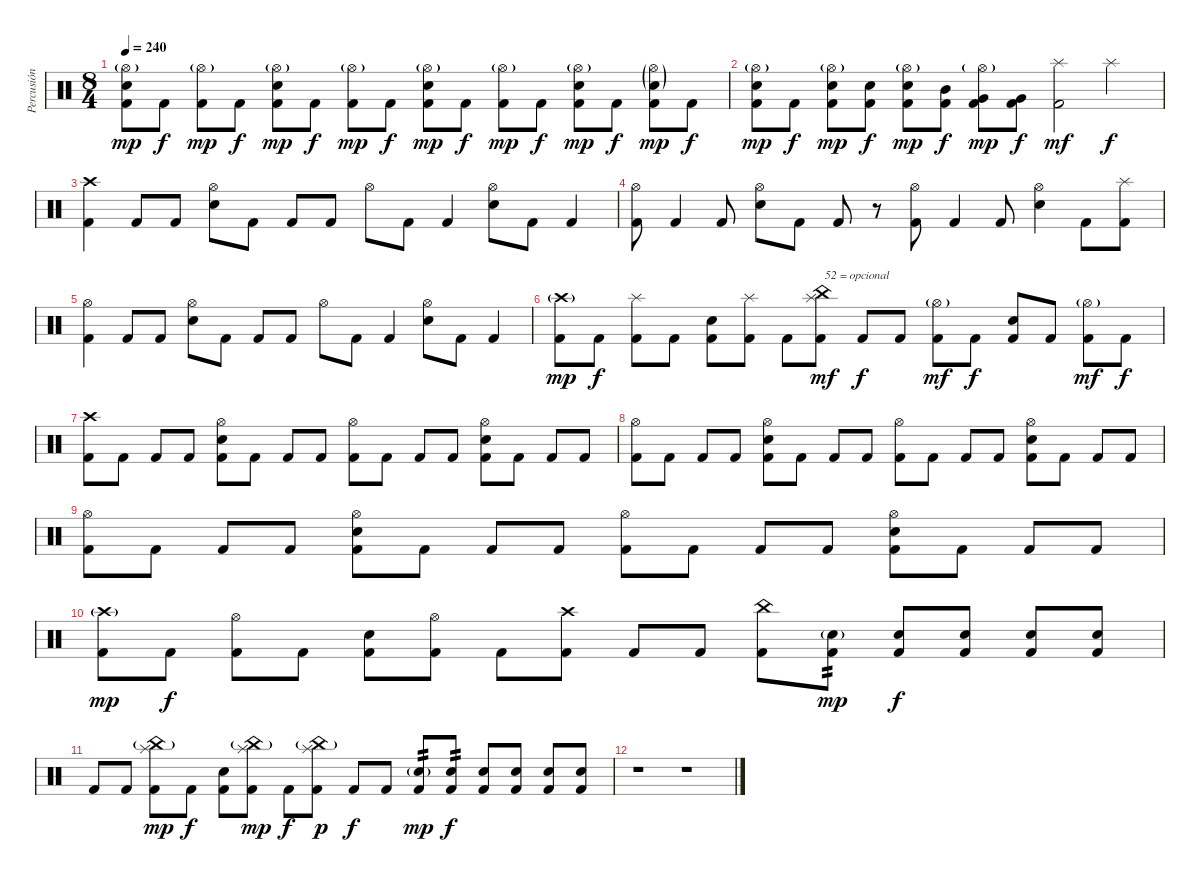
\track ("Percusión" "Percusión") {instrument percussion}
\staff {score}
\articulation defaults
\ts (8 4)
\tempo 240
\clef neutral
\ks c
("Hi-Hat (open)"{g} "Electric Snare (hit)" "Kick (hit) 2").8{dy mp} "Kick (hit) 2".8{dy f} ("Hi-Hat (open)"{g} "Kick (hit) 2").8{dy mp} "Kick (hit) 2".8{dy f} ("Hi-Hat (open)"{g} "Electric Snare (hit)" "Kick (hit) 2").8{dy mp} "Kick (hit) 2".8{dy f} ("Hi-Hat (open)"{g} "Kick (hit) 2").8{dy mp} "Kick (hit) 2".8{dy f} ("Hi-Hat (open)"{g} "Electric Snare (hit)" "Kick (hit) 2").8{dy mp} "Kick (hit) 2".8{dy f} ("Hi-Hat (open)"{g} "Kick (hit) 2").8{dy mp} "Kick (hit) 2".8{dy f} ("Hi-Hat (open)"{g} "Electric Snare (hit)" "Kick (hit) 2").8{dy mp} "Kick (hit) 2".8{dy f} ("Hi-Hat (open)"{g} "Electric Snare (hit)"{g} "Kick (hit) 2").8{dy mp} "Kick (hit) 2".8{dy f} |
("Hi-Hat (open)"{g} "Electric Snare (hit)" "Kick (hit) 2").8{dy mp} "Kick (hit) 2".8{dy f} ("Hi-Hat (open)"{g} "Electric Snare (hit)" "Kick (hit) 2").8{dy mp} ("Electric Snare (hit)" "Kick (hit) 2").8{dy f} ("Hi-Hat (open)"{g} "Electric Snare (hit)" "Kick (hit) 2").8{dy mp} ("Mid Tom (hit)" "Kick (hit) 2").8{dy f} ("Hi-Hat (open)"{g} "Very Low Tom (hit)" "Kick (hit) 2").8{dy mp} ("Very Low Tom (hit)" "Kick (hit) 2").8{dy f} ("Splash (hit)" "Kick (hit) 2").2{dy mf} "Splash (hit)".2{dy f} |
("Crash high (hit)" "Kick (hit) 2").4 "Kick (hit) 2".8 "Kick (hit) 2".8 ("Hi-Hat (open)" "Electric Snare (hit)").8 "Kick (hit) 2".8 "Kick (hit) 2".8 "Kick (hit) 2".8 "Hi-Hat (open)".8 "Kick (hit) 2".8 "Kick (hit) 2".4 ("Hi-Hat (open)" "Electric Snare (hit)").8 "Kick (hit) 2".8 "Kick (hit) 2".4 |
("Hi-Hat (open)" "Kick (hit) 2").8 "Kick (hit) 2".4 "Kick (hit) 2".8 ("Hi-Hat (open)" "Electric Snare (hit)").8 "Kick (hit) 2".8 "Kick (hit) 2".8 r.8 ("Hi-Hat (open)" "Kick (hit) 2").8 "Kick (hit) 2".4 "Kick (hit) 2".8 ("Hi-Hat (open)" "Electric Snare (hit)").4 "Kick (hit) 2".8 ("Splash (hit)" "Kick (hit) 2").8 |
("Hi-Hat (open)" "Kick (hit) 2").4 "Kick (hit) 2".8 "Kick (hit) 2".8 ("Hi-Hat (open)" "Electric Snare (hit)").8 "Kick (hit) 2".8 "Kick (hit) 2".8 "Kick (hit) 2".8 "Hi-Hat (open)".8 "Kick (hit) 2".8 "Kick (hit) 2".4 ("Hi-Hat (open)" "Electric Snare (hit)").8 "Kick (hit) 2".8 "Kick (hit) 2".4 |
("Crash high (hit)"{g} "Kick (hit) 2").8{dy mp} "Kick (hit) 2".8{dy f} ("Splash (hit)" "Kick (hit) 2").8 "Kick (hit) 2".8 ("Electric Snare (hit)" "Kick (hit) 2").8 ("Splash (hit)" "Kick (hit) 2").8 "Kick (hit) 2".8 ("Splash (hit)" "China (hit)" "Kick (hit) 2").8{txt "52 = opcional" dy mf} "Kick (hit) 2".8{dy f} "Kick (hit) 2".8 ("Hi-Hat (open)"{g} "Kick (hit) 2").8{dy mf} "Kick (hit) 2".8{dy f} ("Electric Snare (hit)" "Kick (hit) 2").8 "Kick (hit) 2".8 ("Hi-Hat (open)"{g} "Kick (hit) 2").8{dy mf} "Kick (hit) 2".8{dy f} |
("Crash high (hit)" "Kick (hit) 2").8 "Kick (hit) 2".8 "Kick (hit) 2".8 "Kick (hit) 2".8 ("Hi-Hat (open)" "Electric Snare (hit)" "Kick (hit) 2").8 "Kick (hit) 2".8 "Kick (hit) 2".8 "Kick (hit) 2".8 ("Hi-Hat (open)" "Kick (hit) 2").8 "Kick (hit) 2".8 "Kick (hit) 2".8 "Kick (hit) 2".8 ("Hi-Hat (open)" "Electric Snare (hit)" "Kick (hit) 2").8 "Kick (hit) 2".8 "Kick (hit) 2".8 "Kick (hit) 2".8 |
("Hi-Hat (open)" "Kick (hit) 2").8 "Kick (hit) 2".8 "Kick (hit) 2".8 "Kick (hit) 2".8 ("Hi-Hat (open)" "Electric Snare (hit)" "Kick (hit) 2").8 "Kick (hit) 2".8 "Kick (hit) 2".8 "Kick (hit) 2".8 ("Hi-Hat (open)" "Kick (hit) 2").8 "Kick (hit) 2".8 "Kick (hit) 2".8 "Kick (hit) 2".8 ("Hi-Hat (open)" "Electric Snare (hit)" "Kick (hit) 2").8 "Kick (hit) 2".8 "Kick (hit) 2".8 "Kick (hit) 2".8 |
("Hi-Hat (open)" "Kick (hit) 2").8 "Kick (hit) 2".8 "Kick (hit) 2".8 "Kick (hit) 2".8 ("Hi-Hat (open)" "Electric Snare (hit)" "Kick (hit) 2").8 "Kick (hit) 2".8 "Kick (hit) 2".8 "Kick (hit) 2".8 ("Hi-Hat (open)" "Kick (hit) 2").8 "Kick (hit) 2".8 "Kick (hit) 2".8 "Kick (hit) 2".8 ("Hi-Hat (open)" "Electric Snare (hit)" "Kick (hit) 2").8 "Kick (hit) 2".8 "Kick (hit) 2".8 "Kick (hit) 2".8 |
("Crash high (hit)"{g} "Kick (hit) 2").8{dy mp} "Kick (hit) 2".8{dy f} ("Hi-Hat (open)" "Kick (hit) 2").8 "Kick (hit) 2".8 ("Electric Snare (hit)" "Kick (hit) 2").8 ("Hi-Hat (open)" "Kick (hit) 2").8 "Kick (hit) 2".8 ("Crash high (hit)" "Kick (hit) 2").8 "Kick (hit) 2".8 "Kick (hit) 2".8 ("China (hit)" "Kick (hit) 2").8 ("Electric Snare (hit)"{g} "Kick (hit) 2").8{tp 2 dy mp} ("Electric Snare (hit)" "Kick (hit) 2").8{dy f} ("Electric Snare (hit)" "Kick (hit) 2").8 ("Electric Snare (hit)" "Kick (hit) 2").8 ("Electric Snare (hit)" "Kick (hit) 2").8 |
"Kick (hit) 2".8 "Kick (hit) 2".8 ("Splash (hit)" "China (hit)"{g} "Kick (hit) 2").8{dy mp} "Kick (hit) 2".8{dy f} ("Electric Snare (hit)" "Kick (hit) 2").8 ("Splash (hit)" "China (hit)"{g} "Kick (hit) 2").8{dy mp} "Kick (hit) 2".8{dy f} ("Splash (hit)" "China (hit)"{g} "Kick (hit) 2").8{dy p} "Kick (hit) 2".8{dy f} "Kick (hit) 2".8 ("Electric Snare (hit)"{g} "Kick (hit) 2").8{tp 2 dy mp} ("Electric Snare (hit)" "Kick (hit) 2").8{tp 2 dy f} ("Electric Snare (hit)" "Kick (hit) 2").8 ("Electric Snare (hit)" "Kick (hit) 2").8 ("Electric Snare (hit)" "Kick (hit) 2").8 ("Electric Snare (hit)" "Kick (hit) 2").8 |
r.1 r.1
